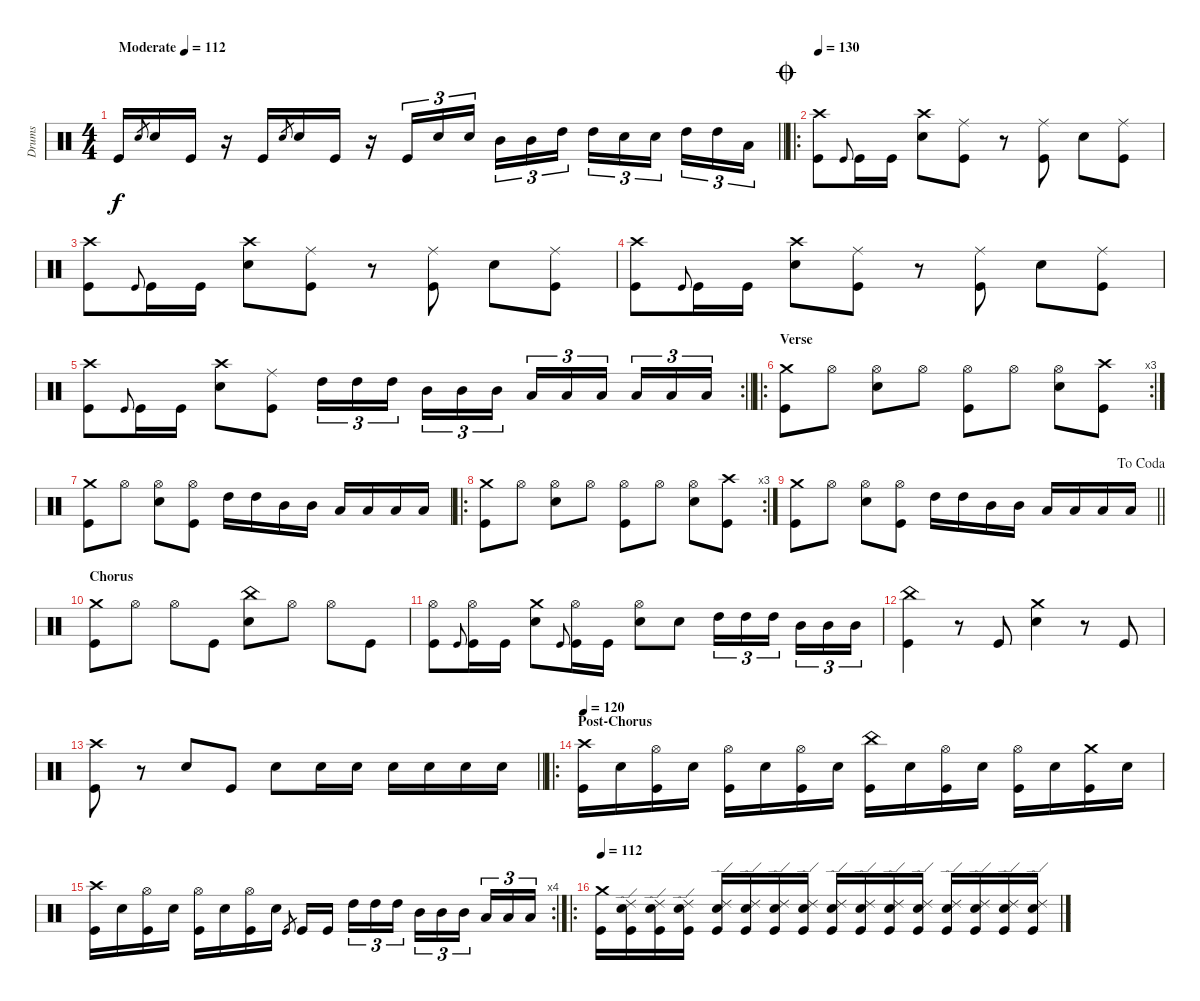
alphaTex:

\track ("Drums" "Drums") {instrument percussion}
\staff {score}
\articulation defaults
\ts (4 4)
\tempo (112 "Moderate")
\clef neutral
\barLineRight lightlight
\ks aminor "Kick (hit)".16{dy f} "Electric Snare (hit)".8{gr} "Electric Snare (hit)".16 "Kick (hit)".16
r.16 "Kick (hit)".16 "Electric Snare (hit)".8{gr} "Electric Snare (hit)".16 "Kick (hit)".16 r.16 "Kick (hit)".16{tu (3 2)} "Electric Snare (hit)".16{tu (3 2)} "Electric Snare (hit)".16{tu (3 2) beam splitsecondary} "Mid Tom (hit)".16{tu (3 2)} "Mid Tom (hit)".16{tu (3 2)} "High Tom (hit)".16{tu (3 2)} "High Tom (hit)".16{tu (3 2)} "Electric Snare (hit)".16{tu (3 2)} "Electric Snare (hit)".16{tu (3 2) beam splitsecondary} "High Tom (hit)".16{tu (3 2)} "High Tom (hit)".16{tu (3 2)} "Low Tom (hit)".16{tu (3 2)} |
\ro
\jump coda
\tempo 130
("Crash high (hit)" "Kick (hit)").8 "Kick (hit)".8{gr onbeat} "Kick (hit)".16 "Kick (hit)".16 ("Crash high (hit)" "Electric Snare (hit)").8 ("Ride (middle)" "Kick (hit)").8 r.8 ("Ride (middle)" "Kick (hit)").8 "Electric Snare (hit)".8 ("Ride (middle)" "Kick (hit)").8 |
("Crash high (hit)" "Kick (hit)").8 "Kick (hit)".8{gr onbeat} "Kick (hit)".16 "Kick (hit)".16 ("Crash high (hit)" "Electric Snare (hit)").8 ("Ride (middle)" "Kick (hit)").8 r.8 ("Ride (middle)" "Kick (hit)").8 "Electric Snare (hit)".8 ("Ride (middle)" "Kick (hit)").8 |
("Crash high (hit)" "Kick (hit)").8 "Kick (hit)".8{gr onbeat} "Kick (hit)".16 "Kick (hit)".16 ("Crash high (hit)" "Electric Snare (hit)").8 ("Ride (middle)" "Kick (hit)").8 r.8 ("Ride (middle)" "Kick (hit)").8 "Electric Snare (hit)".8 ("Ride (middle)" "Kick (hit)").8 |
\rc 2
\barLineRight lightlight
("Crash high (hit)" "Kick (hit)").8 "Kick (hit)".8{gr onbeat} "Kick (hit)".16 "Kick (hit)".16 ("Crash high (hit)" "Electric Snare (hit)").8 ("Ride (middle)" "Kick (hit)").8 "High Tom (hit)".16{tu (3 2)} "High Tom (hit)".16{tu (3 2)} "High Tom (hit)".16{tu (3 2) beam splitsecondary} "Mid Tom (hit)".16{tu (3 2)} "Mid Tom (hit)".16{tu (3 2)} "Mid Tom (hit)".16{tu (3 2)} "Low Tom (hit)".16{tu (3 2)} "Low Tom (hit)".16{tu (3 2)} "Low Tom (hit)".16{tu (3 2) beam splitsecondary} "Low Floor Tom (hit)".16{tu (3 2)} "Low Floor Tom (hit)".16{tu (3 2)} "Low Floor Tom (hit)".16{tu (3 2)} |
\ro
\rc 3
\section ("" "Verse")
("Crash medium (hit)" "Kick (hit)").8 "Hi-Hat (open)".8 ("Hi-Hat (open)" "Electric Snare (hit)").8 "Hi-Hat (open)".8 ("Hi-Hat (open)" "Kick (hit)").8 "Hi-Hat (open)".8 ("Hi-Hat (open)" "Electric Snare (hit)").8 ("Crash high (hit)" "Kick (hit)").8 |
("Crash medium (hit)" "Kick (hit)").8 "Hi-Hat (open)".8 ("Hi-Hat (open)" "Electric Snare (hit)").8 ("Hi-Hat (open)" "Kick (hit)").8 "High Tom (hit)".16 "High Tom (hit)".16 "Mid Tom (hit)".16 "Mid Tom (hit)".16 "Low Tom (hit)".16 "Low Tom (hit)".16 "Low Floor Tom (hit)".16 "Low Floor Tom (hit)".16 |
\ro
\rc 3
("Crash medium (hit)" "Kick (hit)").8 "Hi-Hat (open)".8 ("Hi-Hat (open)" "Electric Snare (hit)").8 "Hi-Hat (open)".8 ("Hi-Hat (open)" "Kick (hit)").8 "Hi-Hat (open)".8 ("Hi-Hat (open)" "Electric Snare (hit)").8 ("Crash high (hit)" "Kick (hit)").8 |
\jump dacoda
\barLineRight lightlight
("Crash medium (hit)" "Kick (hit)").8 "Hi-Hat (open)".8 ("Hi-Hat (open)" "Electric Snare (hit)").8 ("Hi-Hat (open)" "Kick (hit)").8 "High Tom (hit)".16 "High Tom (hit)".16 "Mid Tom (hit)".16 "Mid Tom (hit)".16 "Low Tom (hit)".16 "Low Tom (hit)".16 "Low Floor Tom (hit)".16 "Low Floor Tom (hit)".16 |
\section ("" "Chorus")
("Crash medium (hit)" "Kick (hit)").8 "Hi-Hat (open)".8 "Hi-Hat (open)".8 "Kick (hit)".8 ("China (hit)" "Electric Snare (hit)").8 "Hi-Hat (open)".8 "Hi-Hat (open)".8 "Kick (hit)".8 |
("Hi-Hat (open)" "Kick (hit)").8 "Kick (hit)".8{gr onbeat} ("Hi-Hat (open)" "Kick (hit)").16 "Kick (hit)".16 ("Crash medium (hit)" "Electric Snare (hit)").8 "Kick (hit)".8{gr onbeat} ("Hi-Hat (open)" "Kick (hit)").16 "Kick (hit)".16 ("Hi-Hat (open)" "Electric Snare (hit)").8 "Electric Snare (hit)".8 "High Tom (hit)".16{tu (3 2)} "High Tom (hit)".16{tu (3 2)} "High Tom (hit)".16{tu (3 2) beam splitsecondary} "Mid Tom (hit)".16{tu (3 2)} "Mid Tom (hit)".16{tu (3 2)} "Mid Tom (hit)".16{tu (3 2)} |
("China (hit)" "Kick (hit)").4 r.8 "Kick (hit)".8 ("Crash medium (hit)" "Electric Snare (hit)").4 r.8 "Kick (hit)".8 |
\barLineRight lightlight
("Crash high (hit)" "Kick (hit)").8 r.8 "Electric Snare (hit)".8 "Kick (hit)".8 "Electric Snare (hit)".8 "Electric Snare (hit)".16 "Electric Snare (hit)".16 "Electric Snare (hit)".16 "Electric Snare (hit)".16 "Electric Snare (hit)".16 "Electric Snare (hit)".16 |
\ro
\section ("" "Post-Chorus")
\tempo 120
("Crash high (hit)" "Kick (hit)").16 "Electric Snare (hit)".16 ("Hi-Hat (open)" "Kick (hit)").16 "Electric Snare (hit)".16 ("Hi-Hat (open)" "Kick (hit)").16 "Electric Snare (hit)".16 ("Hi-Hat (open)" "Kick (hit)").16 "Electric Snare (hit)".16 ("China (hit)" "Kick (hit)").16 "Electric Snare (hit)".16 ("Hi-Hat (open)" "Kick (hit)").16 "Electric Snare (hit)".16 ("Hi-Hat (open)" "Kick (hit)").16 "Electric Snare (hit)".16 ("Crash medium (hit)" "Kick (hit)").16 "Electric Snare (hit)".16 |
\rc 4
("Crash high (hit)" "Kick (hit)").16 "Electric Snare (hit)".16 ("Hi-Hat (open)" "Kick (hit)").16 "Electric Snare (hit)".16 ("Hi-Hat (open)" "Kick (hit)").16 "Electric Snare (hit)".16 ("Hi-Hat (open)" "Kick (hit)").16 "Electric Snare (hit)".16 "Kick (hit)".8{gr} "Kick (hit)".16 "Kick (hit)".16{beam splitsecondary} "High Tom (hit)".16{tu (3 2)} "High Tom (hit)".16{tu (3 2)} "High Tom (hit)".16{tu (3 2)} "Mid Tom (hit)".16{tu (3 2)} "Mid Tom (hit)".16{tu (3 2)} "Mid Tom (hit)".16{tu (3 2) beam splitsecondary} "Low Tom (hit)".16{tu (3 2)} "Low Tom (hit)".16{tu (3 2)} "Low Tom (hit)".16{tu (3 2)} |
\ro
\tempo 112
("Crash medium (hit)" "Kick (hit)").16 ("Ride (edge) 2" "Electric Snare (hit)" "Kick (hit)").16 ("Ride (edge) 2" "Electric Snare (hit)" "Kick (hit)").16 ("Ride (edge) 2" "Electric Snare (hit)" "Kick (hit)").16 ("Ride (edge) 2" "Electric Snare (hit)" "Kick (hit)").16 ("Ride (edge) 2" "Electric Snare (hit)" "Kick (hit)").16 ("Ride (edge) 2" "Electric Snare (hit)" "Kick (hit)").16 ("Ride (edge) 2" "Electric Snare (hit)" "Kick (hit)").16 ("Ride (edge) 2" "Electric Snare (hit)" "Kick (hit)").16 ("Ride (edge) 2" "Electric Snare (hit)" "Kick (hit)").16 ("Ride (edge) 2" "Electric Snare (hit)" "Kick (hit)").16 ("Ride (edge) 2" "Electric Snare (hit)" "Kick (hit)").16 ("Ride (edge) 2" "Electric Snare (hit)" "Kick (hit)").16 ("Ride (edge) 2" "Electric Snare (hit)" "Kick (hit)").16 ("Ride (edge) 2" "Electric Snare (hit)" "Kick (hit)").16 ("Ride (edge) 2" "Electric Snare (hit)" "Kick (hit)").16
